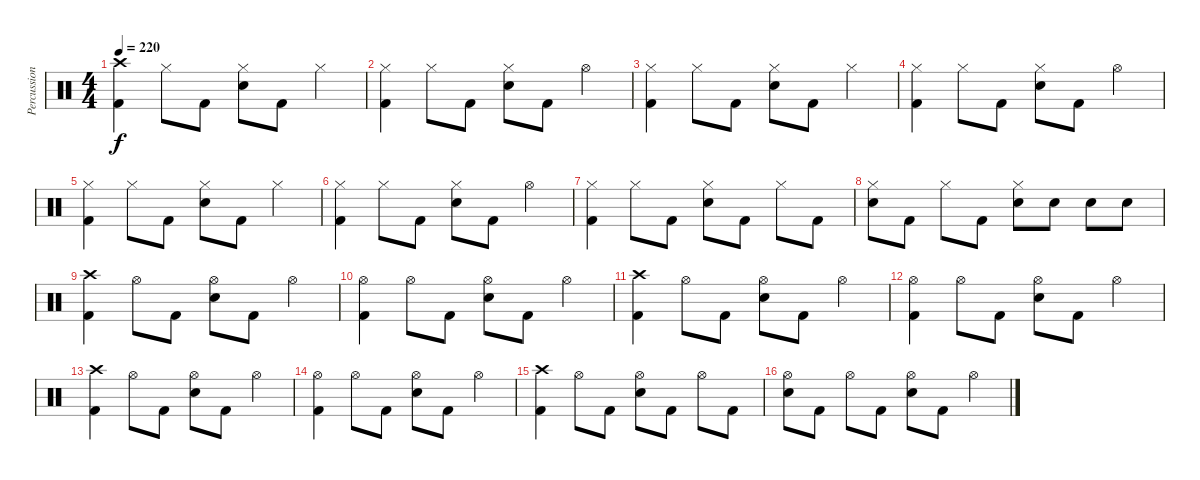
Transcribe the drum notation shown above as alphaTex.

\track ("Percussion" "Percussion") {instrument percussion}
\staff {score}
\articulation defaults
\ts (4 4)
\tempo 220
\clef neutral
\ks c
("Crash high (hit)" "Kick (hit) 2").4{dy f} "Hi-Hat (closed)".8 "Kick (hit) 2".8 ("Hi-Hat (closed)" "Snare (hit) 2").8 "Kick (hit) 2".8 "Hi-Hat (closed)".4 |
("Hi-Hat (closed)" "Kick (hit) 2").4 "Hi-Hat (closed)".8 "Kick (hit) 2".8 ("Hi-Hat (closed)" "Snare (hit) 2").8 "Kick (hit) 2".8 "Hi-Hat (open)".4 |
("Hi-Hat (closed)" "Kick (hit) 2").4 "Hi-Hat (closed)".8 "Kick (hit) 2".8 ("Hi-Hat (closed)" "Snare (hit) 2").8 "Kick (hit) 2".8 "Hi-Hat (closed)".4 |
("Hi-Hat (closed)" "Kick (hit) 2").4 "Hi-Hat (closed)".8 "Kick (hit) 2".8 ("Hi-Hat (closed)" "Snare (hit) 2").8 "Kick (hit) 2".8 "Hi-Hat (open)".4 |
("Hi-Hat (closed)" "Kick (hit) 2").4 "Hi-Hat (closed)".8 "Kick (hit) 2".8 ("Hi-Hat (closed)" "Snare (hit) 2").8 "Kick (hit) 2".8 "Hi-Hat (closed)".4 |
("Hi-Hat (closed)" "Kick (hit) 2").4 "Hi-Hat (closed)".8 "Kick (hit) 2".8 ("Hi-Hat (closed)" "Snare (hit) 2").8 "Kick (hit) 2".8 "Hi-Hat (open)".4 |
("Hi-Hat (closed)" "Kick (hit) 2").4 "Hi-Hat (closed)".8 "Kick (hit) 2".8 ("Hi-Hat (closed)" "Snare (hit) 2").8 "Kick (hit) 2".8 "Hi-Hat (closed)".8 "Kick (hit) 2".8 |
("Hi-Hat (closed)" "Snare (hit) 2").8 "Kick (hit) 2".8 "Hi-Hat (closed)".8 "Kick (hit) 2".8 ("Hi-Hat (closed)" "Snare (hit) 2").8 "Snare (hit) 2".8 "Snare (hit) 2".8 "Snare (hit) 2".8 |
("Crash high (hit)" "Kick (hit) 2").4 "Hi-Hat (open)".8 "Kick (hit) 2".8 ("Hi-Hat (open)" "Snare (hit) 2").8 "Kick (hit) 2".8 "Hi-Hat (open)".4 |
("Hi-Hat (open)" "Kick (hit) 2").4 "Hi-Hat (open)".8 "Kick (hit) 2".8 ("Hi-Hat (open)" "Snare (hit) 2").8 "Kick (hit) 2".8 "Hi-Hat (open)".4 |
("Crash high (hit)" "Kick (hit) 2").4 "Hi-Hat (open)".8 "Kick (hit) 2".8 ("Hi-Hat (open)" "Snare (hit) 2").8 "Kick (hit) 2".8 "Hi-Hat (open)".4 |
("Hi-Hat (open)" "Kick (hit) 2").4 "Hi-Hat (open)".8 "Kick (hit) 2".8 ("Hi-Hat (open)" "Snare (hit) 2").8 "Kick (hit) 2".8 "Hi-Hat (open)".4 |
("Crash high (hit)" "Kick (hit) 2").4 "Hi-Hat (open)".8 "Kick (hit) 2".8 ("Hi-Hat (open)" "Snare (hit) 2").8 "Kick (hit) 2".8 "Hi-Hat (open)".4 |
("Hi-Hat (open)" "Kick (hit) 2").4 "Hi-Hat (open)".8 "Kick (hit) 2".8 ("Hi-Hat (open)" "Snare (hit) 2").8 "Kick (hit) 2".8 "Hi-Hat (open)".4 |
("Crash high (hit)" "Kick (hit) 2").4 "Hi-Hat (open)".8 "Kick (hit) 2".8 ("Hi-Hat (open)" "Snare (hit) 2").8 "Kick (hit) 2".8 "Hi-Hat (open)".8 "Kick (hit) 2".8 |
("Hi-Hat (open)" "Snare (hit) 2").8 "Kick (hit) 2".8 "Hi-Hat (open)".8 "Kick (hit) 2".8 ("Hi-Hat (open)" "Snare (hit) 2").8 "Kick (hit) 2".8 "Hi-Hat (open)".4
